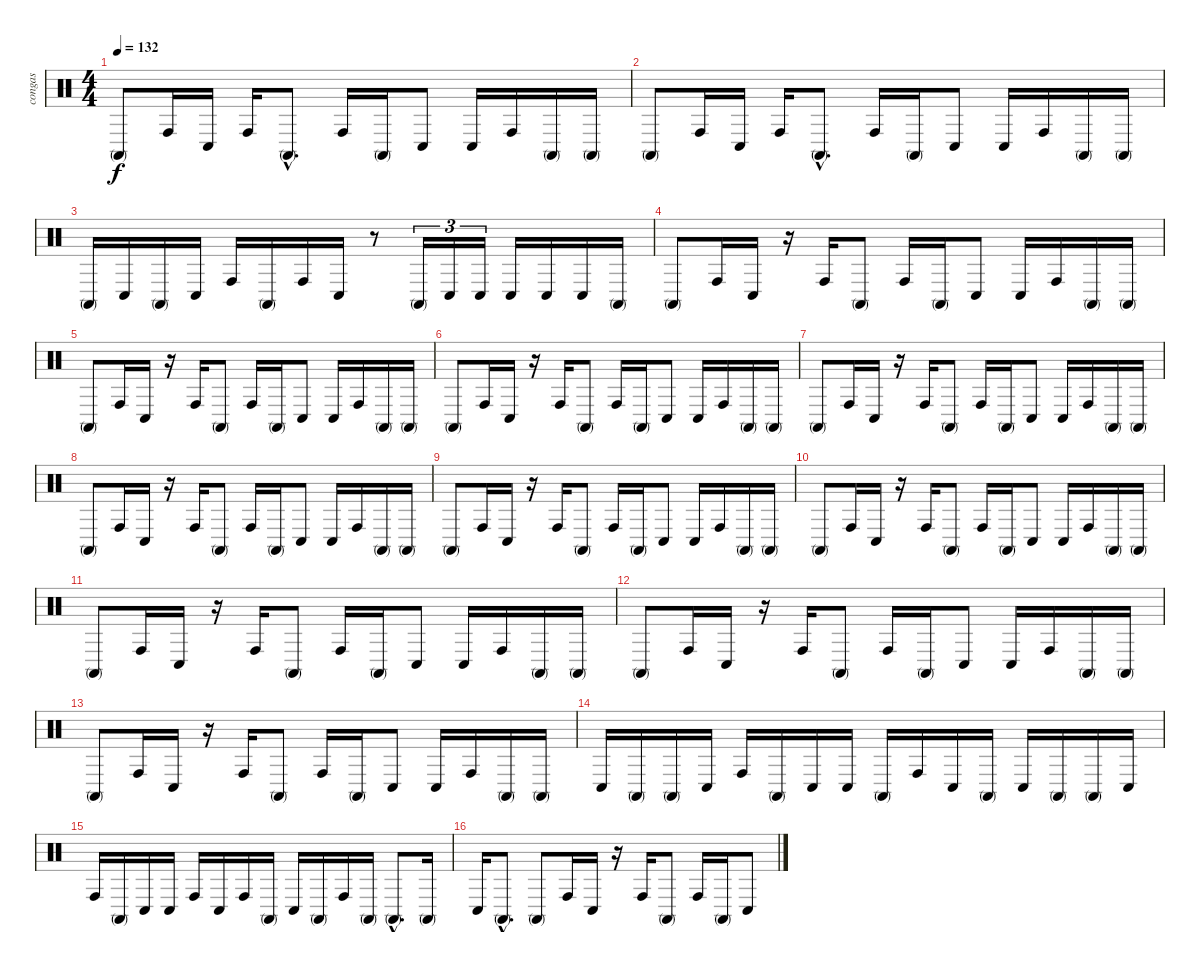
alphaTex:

\track ("congas" "congas") {instrument percussion}
\staff {score}
\articulation defaults
\ts (4 4)
\tempo 132
\clef neutral
\ks c "Conga high (mute)".8{dy f} "Conga high (hit)".16 "Conga low (hit)".16 "Conga high (hit)".16 "Conga high (mute)"{hac}.8{d} "Conga high (hit)".16 "Conga high (mute)".16 "Conga low (hit)".8 "Conga low (hit)".16 "Conga high (hit)".16 "Conga high (mute)".16 "Conga high (mute)".16
|
"Conga high (mute)".8 "Conga high (hit)".16 "Conga low (hit)".16 "Conga high (hit)".16 "Conga high (mute)"{hac}.8{d} "Conga high (hit)".16 "Conga high (mute)".16 "Conga low (hit)".8 "Conga low (hit)".16 "Conga high (hit)".16 "Conga high (mute)".16 "Conga high (mute)".16 |
"Conga high (mute)".16 "Conga low (hit)".16 "Conga high (mute)".16 "Conga low (hit)".16 "Conga high (hit)".16 "Conga high (mute)".16 "Conga high (hit)".16 "Conga low (hit)".16 r.8 "Conga high (mute)".16{tu (3 2)} "Conga low (hit)".16{tu (3 2)} "Conga low (hit)".16{tu (3 2)} "Conga low (hit)".16 "Conga low (hit)".16 "Conga low (hit)".16 "Conga high (mute)".16 |
"Conga high (mute)".8 "Conga high (hit)".16 "Conga low (hit)".16 r.16 "Conga high (hit)".16 "Conga high (mute)".8 "Conga high (hit)".16 "Conga high (mute)".16 "Conga low (hit)".8 "Conga low (hit)".16 "Conga high (hit)".16 "Conga high (mute)".16 "Conga high (mute)".16 |
"Conga high (mute)".8 "Conga high (hit)".16 "Conga low (hit)".16 r.16 "Conga high (hit)".16 "Conga high (mute)".8 "Conga high (hit)".16 "Conga high (mute)".16 "Conga low (hit)".8 "Conga low (hit)".16 "Conga high (hit)".16 "Conga high (mute)".16 "Conga high (mute)".16 |
"Conga high (mute)".8 "Conga high (hit)".16 "Conga low (hit)".16 r.16 "Conga high (hit)".16 "Conga high (mute)".8 "Conga high (hit)".16 "Conga high (mute)".16 "Conga low (hit)".8 "Conga low (hit)".16 "Conga high (hit)".16 "Conga high (mute)".16 "Conga high (mute)".16 |
"Conga high (mute)".8 "Conga high (hit)".16 "Conga low (hit)".16 r.16 "Conga high (hit)".16 "Conga high (mute)".8 "Conga high (hit)".16 "Conga high (mute)".16 "Conga low (hit)".8 "Conga low (hit)".16 "Conga high (hit)".16 "Conga high (mute)".16 "Conga high (mute)".16 |
"Conga high (mute)".8 "Conga high (hit)".16 "Conga low (hit)".16 r.16 "Conga high (hit)".16 "Conga high (mute)".8 "Conga high (hit)".16 "Conga high (mute)".16 "Conga low (hit)".8 "Conga low (hit)".16 "Conga high (hit)".16 "Conga high (mute)".16 "Conga high (mute)".16 |
"Conga high (mute)".8 "Conga high (hit)".16 "Conga low (hit)".16 r.16 "Conga high (hit)".16 "Conga high (mute)".8 "Conga high (hit)".16 "Conga high (mute)".16 "Conga low (hit)".8 "Conga low (hit)".16 "Conga high (hit)".16 "Conga high (mute)".16 "Conga high (mute)".16 |
"Conga high (mute)".8 "Conga high (hit)".16 "Conga low (hit)".16 r.16 "Conga high (hit)".16 "Conga high (mute)".8 "Conga high (hit)".16 "Conga high (mute)".16 "Conga low (hit)".8 "Conga low (hit)".16 "Conga high (hit)".16 "Conga high (mute)".16 "Conga high (mute)".16 |
"Conga high (mute)".8 "Conga high (hit)".16 "Conga low (hit)".16 r.16 "Conga high (hit)".16 "Conga high (mute)".8 "Conga high (hit)".16 "Conga high (mute)".16 "Conga low (hit)".8 "Conga low (hit)".16 "Conga high (hit)".16 "Conga high (mute)".16 "Conga high (mute)".16 |
"Conga high (mute)".8 "Conga high (hit)".16 "Conga low (hit)".16 r.16 "Conga high (hit)".16 "Conga high (mute)".8 "Conga high (hit)".16 "Conga high (mute)".16 "Conga low (hit)".8 "Conga low (hit)".16 "Conga high (hit)".16 "Conga high (mute)".16 "Conga high (mute)".16 |
"Conga high (mute)".8 "Conga high (hit)".16 "Conga low (hit)".16 r.16 "Conga high (hit)".16 "Conga high (mute)".8 "Conga high (hit)".16 "Conga high (mute)".16 "Conga low (hit)".8 "Conga low (hit)".16 "Conga high (hit)".16 "Conga high (mute)".16 "Conga high (mute)".16 |
"Conga low (hit)".16 "Conga high (mute)".16 "Conga high (mute)".16 "Conga low (hit)".16 "Conga high (hit)".16 "Conga high (mute)".16 "Conga low (hit)".16 "Conga low (hit)".16 "Conga high (mute)".16 "Conga high (hit)".16 "Conga low (hit)".16 "Conga high (mute)".16 "Conga low (hit)".16 "Conga high (mute)".16 "Conga high (mute)".16 "Conga low (hit)".16 |
"Conga high (hit)".16 "Conga high (mute)".16 "Conga low (hit)".16 "Conga low (hit)".16 "Conga high (hit)".16 "Conga low (hit)".16 "Conga high (hit)".16 "Conga high (mute)".16 "Conga low (hit)".16 "Conga high (mute)".16 "Conga high (hit)".16 "Conga high (mute)".16 "Conga high (mute)"{hac}.8{d} "Conga high (mute)".16 |
"Conga low (hit)".16 "Conga high (mute)"{hac}.8{d} "Conga high (mute)".8 "Conga high (hit)".16 "Conga low (hit)".16 r.16 "Conga high (hit)".16 "Conga high (mute)".8 "Conga high (hit)".16 "Conga high (mute)".16 "Conga low (hit)".8
